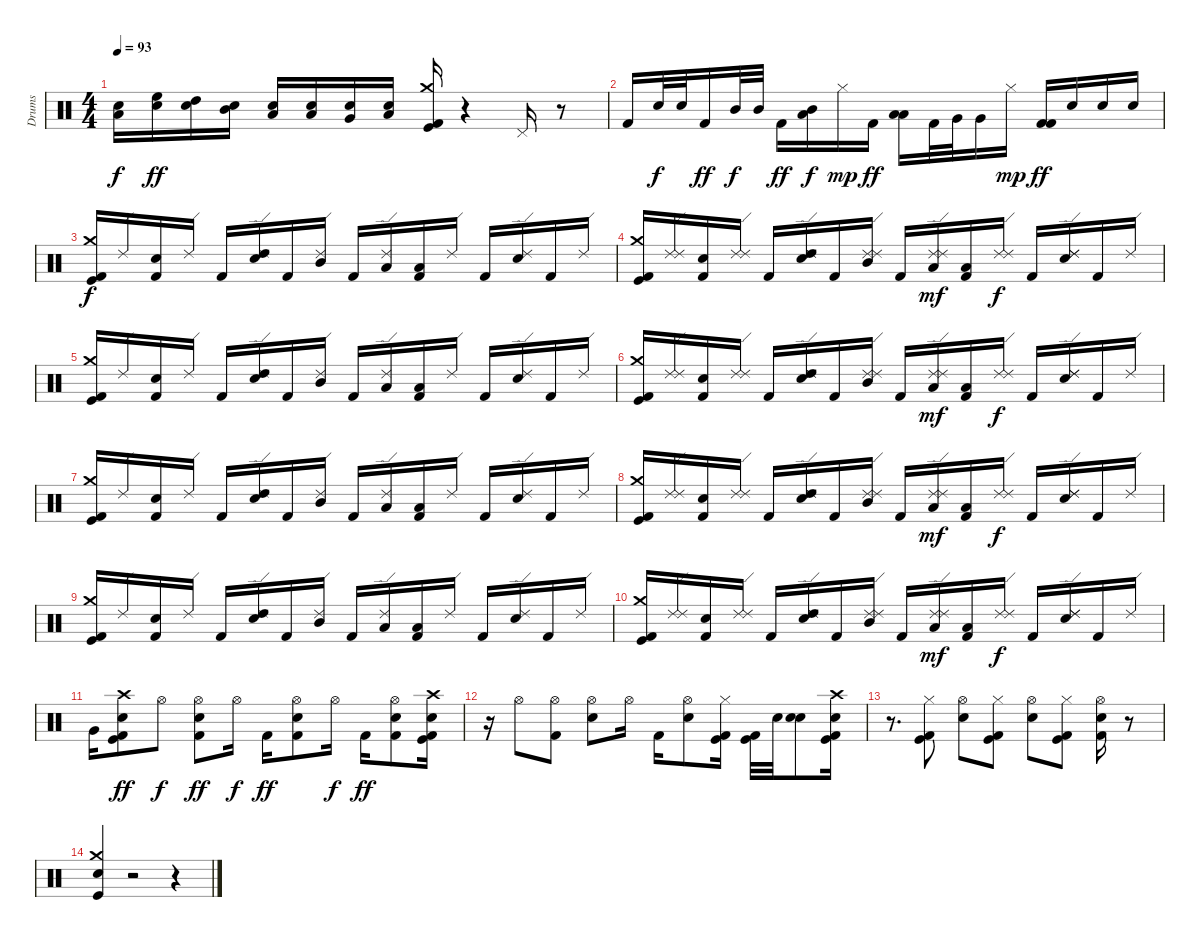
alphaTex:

\track ("Drums" "Drums") {instrument percussion}
\staff {score}
\articulation defaults
\ts (4 4)
\tempo 93
\clef neutral
\ks c
("Electric Snare (hit)" "Low Tom (hit)").16{dy f} ("Electric Snare (hit)" "High Floor Tom (hit)").16{dy ff} ("Electric Snare (hit)" "High Tom (hit)").16 ("Electric Snare (hit)" "Mid Tom (hit)").16 ("Electric Snare (hit)" "Low Tom (hit)").16 ("Electric Snare (hit)" "Low Tom (hit)").16 ("Electric Snare (hit)" "Very Low Tom (hit)").16 ("Electric Snare (hit)" "Low Floor Tom (hit)").16 ("Kick (hit) 2" "Crash medium (hit)" "Kick (hit)").16 r.4 "Pedal Hi-Hat (hit)".16 r.8 |
"Kick (hit) 2".16 "Electric Snare (hit)".32{dy f} "Electric Snare (hit)".32 "Kick (hit) 2".16{dy ff} "Mid Tom (hit)".32{dy f} "Mid Tom (hit)".32 "Kick (hit) 2".16{dy ff} ("Mid Tom (hit)" "Low Tom (hit)").16{dy f} "Hi-Hat (closed)".16{dy mp} "Kick (hit) 2".16{dy ff} ("Low Tom (hit)" "Low Tom (hit)").16 "Kick (hit) 2".32 "Very Low Tom (hit)".32 "Very Low Tom (hit)".16 "Hi-Hat (closed)".16{dy mp} ("Kick (hit) 2" "Kick (hit) 2").16{dy ff} "Electric Snare (hit)".16 "Electric Snare (hit)".16 "Electric Snare (hit)".16 |
("Kick (hit)" "Kick (hit) 2" "Crash medium (hit)").16{dy f} "Ride (edge) 2".16 ("Electric Snare (hit)" "Kick (hit) 2").16 "Ride (edge) 2".16 "Kick (hit) 2".16 ("Ride (edge) 2" "High Tom (hit)" "Electric Snare (hit)").16 "Kick (hit) 2".16 ("Ride (edge) 2" "Mid Tom (hit)").16 "Kick (hit) 2".16 ("Low Tom (hit)" "Ride (edge) 2").16 ("Kick (hit) 2" "Low Tom (hit)").16 "Ride (edge) 2".16 "Kick (hit) 2".16 ("Electric Snare (hit)" "Ride (edge) 2").16 "Kick (hit) 2".16 "Ride (edge) 2".16 |
("Kick (hit)" "Kick (hit) 2" "Crash medium (hit)").16 ("Ride (edge) 2" "Ride (edge) 2").16 ("Electric Snare (hit)" "Kick (hit) 2").16 ("Ride (edge) 2" "Ride (edge) 2").16 "Kick (hit) 2".16 ("Ride (edge) 2" "Ride (edge) 2" "High Tom (hit)" "Electric Snare (hit)").16 "Kick (hit) 2".16 ("Ride (edge) 2" "Ride (edge) 2" "Mid Tom (hit)").16 "Kick (hit) 2".16 ("Low Tom (hit)" "Ride (edge) 2" "Ride (edge) 2").16{dy mf} ("Low Tom (hit)" "Kick (hit) 2").16 ("Ride (edge) 2" "Ride (edge) 2").16{dy f} "Kick (hit) 2".16 ("Ride (edge) 2" "Electric Snare (hit)" "Ride (edge) 2").16 "Kick (hit) 2".16 "Ride (edge) 2".16 |
("Kick (hit)" "Kick (hit) 2" "Crash medium (hit)").16 "Ride (edge) 2".16 ("Electric Snare (hit)" "Kick (hit) 2").16 "Ride (edge) 2".16 "Kick (hit) 2".16 ("Ride (edge) 2" "High Tom (hit)" "Electric Snare (hit)").16 "Kick (hit) 2".16 ("Ride (edge) 2" "Mid Tom (hit)").16 "Kick (hit) 2".16 ("Low Tom (hit)" "Ride (edge) 2").16 ("Kick (hit) 2" "Low Tom (hit)").16 "Ride (edge) 2".16 "Kick (hit) 2".16 ("Electric Snare (hit)" "Ride (edge) 2").16 "Kick (hit) 2".16 "Ride (edge) 2".16 |
("Kick (hit)" "Kick (hit) 2" "Crash medium (hit)").16 ("Ride (edge) 2" "Ride (edge) 2").16 ("Electric Snare (hit)" "Kick (hit) 2").16 ("Ride (edge) 2" "Ride (edge) 2").16 "Kick (hit) 2".16 ("Ride (edge) 2" "Ride (edge) 2" "High Tom (hit)" "Electric Snare (hit)").16 "Kick (hit) 2".16 ("Ride (edge) 2" "Ride (edge) 2" "Mid Tom (hit)").16 "Kick (hit) 2".16 ("Low Tom (hit)" "Ride (edge) 2" "Ride (edge) 2").16{dy mf} ("Low Tom (hit)" "Kick (hit) 2").16 ("Ride (edge) 2" "Ride (edge) 2").16{dy f} "Kick (hit) 2".16 ("Ride (edge) 2" "Electric Snare (hit)" "Ride (edge) 2").16 "Kick (hit) 2".16 "Ride (edge) 2".16 |
("Kick (hit)" "Kick (hit) 2" "Crash medium (hit)").16 "Ride (edge) 2".16 ("Electric Snare (hit)" "Kick (hit) 2").16 "Ride (edge) 2".16 "Kick (hit) 2".16 ("Ride (edge) 2" "High Tom (hit)" "Electric Snare (hit)").16 "Kick (hit) 2".16 ("Ride (edge) 2" "Mid Tom (hit)").16 "Kick (hit) 2".16 ("Low Tom (hit)" "Ride (edge) 2").16 ("Kick (hit) 2" "Low Tom (hit)").16 "Ride (edge) 2".16 "Kick (hit) 2".16 ("Electric Snare (hit)" "Ride (edge) 2").16 "Kick (hit) 2".16 "Ride (edge) 2".16 |
("Kick (hit)" "Kick (hit) 2" "Crash medium (hit)").16 ("Ride (edge) 2" "Ride (edge) 2").16 ("Electric Snare (hit)" "Kick (hit) 2").16 ("Ride (edge) 2" "Ride (edge) 2").16 "Kick (hit) 2".16 ("Ride (edge) 2" "Ride (edge) 2" "High Tom (hit)" "Electric Snare (hit)").16 "Kick (hit) 2".16 ("Ride (edge) 2" "Ride (edge) 2" "Mid Tom (hit)").16 "Kick (hit) 2".16 ("Low Tom (hit)" "Ride (edge) 2" "Ride (edge) 2").16{dy mf} ("Low Tom (hit)" "Kick (hit) 2").16 ("Ride (edge) 2" "Ride (edge) 2").16{dy f} "Kick (hit) 2".16 ("Ride (edge) 2" "Electric Snare (hit)" "Ride (edge) 2").16 "Kick (hit) 2".16 "Ride (edge) 2".16 |
("Kick (hit)" "Kick (hit) 2" "Crash medium (hit)").16 "Ride (edge) 2".16 ("Electric Snare (hit)" "Kick (hit) 2").16 "Ride (edge) 2".16 "Kick (hit) 2".16 ("Ride (edge) 2" "High Tom (hit)" "Electric Snare (hit)").16 "Kick (hit) 2".16 ("Ride (edge) 2" "Mid Tom (hit)").16 "Kick (hit) 2".16 ("Low Tom (hit)" "Ride (edge) 2").16 ("Kick (hit) 2" "Low Tom (hit)").16 "Ride (edge) 2".16 "Kick (hit) 2".16 ("Electric Snare (hit)" "Ride (edge) 2").16 "Kick (hit) 2".16 "Ride (edge) 2".16 |
("Kick (hit)" "Kick (hit) 2" "Crash medium (hit)").16 ("Ride (edge) 2" "Ride (edge) 2").16 ("Electric Snare (hit)" "Kick (hit) 2").16 ("Ride (edge) 2" "Ride (edge) 2").16 "Kick (hit) 2".16 ("Ride (edge) 2" "Ride (edge) 2" "High Tom (hit)" "Electric Snare (hit)").16 "Kick (hit) 2".16 ("Ride (edge) 2" "Ride (edge) 2" "Mid Tom (hit)").16 "Kick (hit) 2".16 ("Low Tom (hit)" "Ride (edge) 2" "Ride (edge) 2").16{dy mf} ("Low Tom (hit)" "Kick (hit) 2").16 ("Ride (edge) 2" "Ride (edge) 2").16{dy f} "Kick (hit) 2".16 ("Ride (edge) 2" "Electric Snare (hit)" "Ride (edge) 2").16 "Kick (hit) 2".16 "Ride (edge) 2".16 |
"Very Low Tom (hit)".16 ("Electric Snare (hit)" "Kick (hit)" "Kick (hit) 2" "Crash high (hit)").8{dy ff} "Hi-Hat (open)".8{dy f} ("Electric Snare (hit)" "Kick (hit) 2" "Hi-Hat (open)").8{dy ff} "Hi-Hat (open)".16{dy f} "Kick (hit) 2".16{dy ff} ("Hi-Hat (open)" "Electric Snare (hit)" "Kick (hit) 2").8 "Hi-Hat (open)".16{dy f} "Kick (hit) 2".16{dy ff} ("Hi-Hat (open)" "Electric Snare (hit)" "Kick (hit) 2").8 ("Electric Snare (hit)" "Kick (hit)" "Kick (hit) 2" "Crash high (hit)").16 |
r.16 "Hi-Hat (open)".8 ("Hi-Hat (open)" "Kick (hit) 2").8 ("Hi-Hat (open)" "Electric Snare (hit)").8 "Hi-Hat (open)".16 "Kick (hit) 2".16 ("Hi-Hat (open)" "Electric Snare (hit)").8 ("Kick (hit)" "Hi-Hat (closed)" "Kick (hit) 2").16 ("Kick (hit) 2" "Kick (hit)").32 "Electric Snare (hit)".32 ("Electric Snare (hit)" "Electric Snare (hit)").8 ("Electric Snare (hit)" "Kick (hit)" "Kick (hit) 2" "Crash high (hit)").16 |
r.8{d} ("Kick (hit)" "Hi-Hat (closed)" "Kick (hit) 2").8 ("Hi-Hat (open)" "Electric Snare (hit)").8 ("Hi-Hat (closed)" "Kick (hit)" "Kick (hit) 2").8 ("Hi-Hat (open)" "Electric Snare (hit)").8 ("Hi-Hat (closed)" "Kick (hit) 2" "Kick (hit)").8 ("Kick (hit) 2" "Electric Snare (hit)" "Hi-Hat (open)").16 r.8 |
("Electric Snare (hit)" "Crash medium (hit)" "Kick (hit)").4 r.2 r.4
